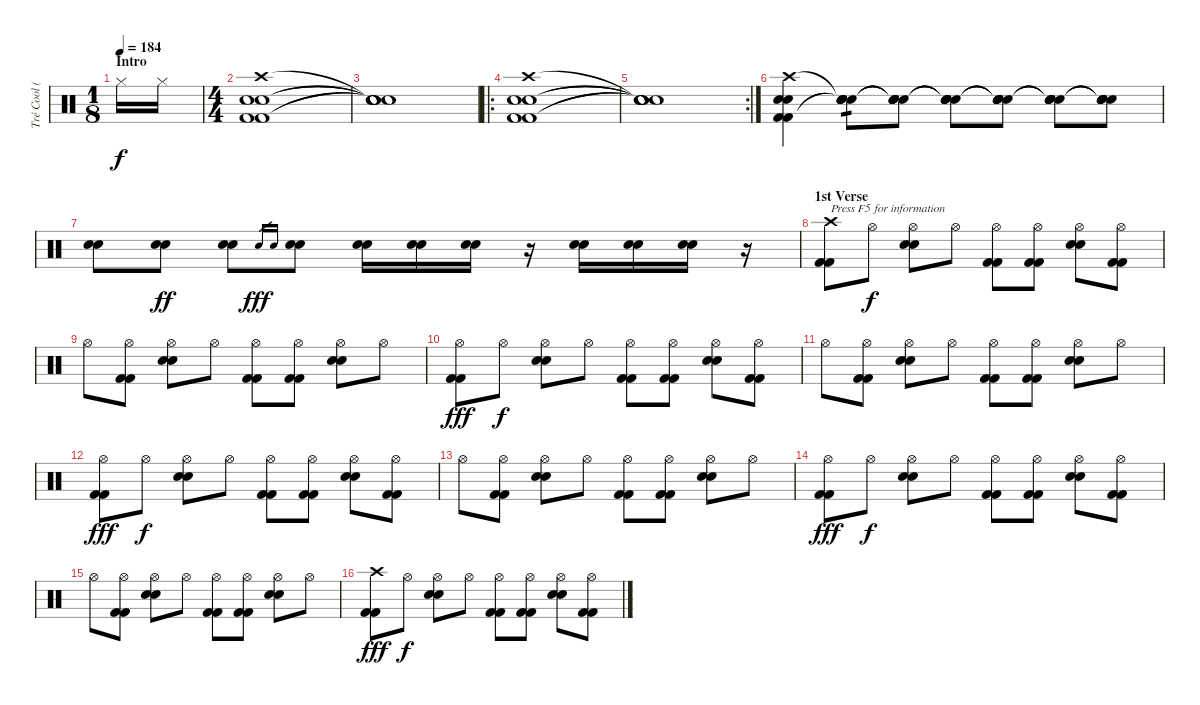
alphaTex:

\track ("Tré Cool (Drums)" "Tré Cool (") {instrument percussion}
\staff {score}
\articulation defaults
\ts (1 8)
\section ("" "Intro")
\tempo 184
\clef neutral
\ks c "Hi-Hat (closed)".16{dy f} "Hi-Hat (closed)".16
|
\ts (4 4)
("Kick (hit) 2" "Kick (hit) 2" "Electric Snare (hit)" "Electric Snare (hit)" "Crash high (hit)").1 |
("Snare (hit)"{t} "Snare (hit)"{t} "Snare (hit)"{t} "Snare (hit)"{t} "Snare (hit)"{t}).1 |
\ro
("Kick (hit) 2" "Kick (hit) 2" "Electric Snare (hit)" "Electric Snare (hit)" "Crash high (hit)").1 |
\rc 2
("Snare (hit)"{t} "Snare (hit)"{t} "Snare (hit)"{t} "Snare (hit)"{t} "Snare (hit)"{t}).1 |
("Electric Snare (hit)" "Electric Snare (hit)" "Kick (hit) 2" "Kick (hit) 2" "Crash high (hit)").4 ("Electric Snare (hit)" "Snare (hit) 2" "Snare (hit)"{t} "Snare (hit)"{t} "Snare (hit)"{t}).8{tp 1 volume 10} ("Electric Snare (hit)" "Snare (hit) 2" "Snare (hit)"{t} "Snare (hit)"{t} "Snare (hit)"{t}).8{volume 16} ("Electric Snare (hit)" "Snare (hit) 2" "Snare (hit)"{t} "Snare (hit)"{t} "Snare (hit)"{t}).8 ("Electric Snare (hit)" "Snare (hit) 2" "Snare (hit)"{t} "Snare (hit)"{t} "Snare (hit)"{t}).8 ("Electric Snare (hit)" "Snare (hit) 2" "Snare (hit)"{t} "Snare (hit)"{t} "Snare (hit)"{t}).8 ("Electric Snare (hit)" "Snare (hit) 2" "Snare (hit)"{t} "Snare (hit)"{t} "Snare (hit)"{t}).8 |
("Electric Snare (hit)" "Snare (hit) 2").8 ("Electric Snare (hit)" "Snare (hit) 2").8{dy ff} ("Electric Snare (hit)" "Snare (hit) 2").8 "Electric Snare (hit)".16{gr dy fff} "Snare (hit) 2"{h}.16{gr} ("Electric Snare (hit)" "Snare (hit) 2").8 ("Electric Snare (hit)" "Snare (hit) 2").16 ("Electric Snare (hit)" "Snare (hit) 2").16 ("Electric Snare (hit)" "Snare (hit) 2").16 r.16 ("Electric Snare (hit)" "Snare (hit) 2").16 ("Electric Snare (hit)" "Snare (hit) 2").16 ("Electric Snare (hit)" "Snare (hit) 2").16 r.16 |
\section ("" "1st Verse")
("Kick (hit) 2" "Kick (hit) 2" "Crash high (hit)").8{txt "Press F5 for information"} "Hi-Hat (open)".8{dy f} ("Electric Snare (hit)" "Electric Snare (hit)" "Hi-Hat (open)").8 "Hi-Hat (open)".8 ("Kick (hit) 2" "Kick (hit) 2" "Hi-Hat (open)").8 ("Kick (hit) 2" "Kick (hit) 2" "Hi-Hat (open)").8 ("Electric Snare (hit)" "Electric Snare (hit)" "Hi-Hat (open)").8 ("Kick (hit) 2" "Kick (hit) 2" "Hi-Hat (open)").8 |
"Hi-Hat (open)".8 ("Kick (hit) 2" "Kick (hit) 2" "Hi-Hat (open)").8 ("Electric Snare (hit)" "Electric Snare (hit)" "Hi-Hat (open)").8 "Hi-Hat (open)".8 ("Kick (hit) 2" "Kick (hit) 2" "Hi-Hat (open)").8 ("Kick (hit) 2" "Kick (hit) 2" "Hi-Hat (open)").8 ("Electric Snare (hit)" "Electric Snare (hit)" "Hi-Hat (open)").8 "Hi-Hat (open)".8 |
("Kick (hit) 2" "Kick (hit) 2" "Hi-Hat (open)").8{dy fff} "Hi-Hat (open)".8{dy f} ("Electric Snare (hit)" "Electric Snare (hit)" "Hi-Hat (open)").8 "Hi-Hat (open)".8 ("Kick (hit) 2" "Kick (hit) 2" "Hi-Hat (open)").8 ("Kick (hit) 2" "Kick (hit) 2" "Hi-Hat (open)").8 ("Electric Snare (hit)" "Electric Snare (hit)" "Hi-Hat (open)").8 ("Kick (hit) 2" "Kick (hit) 2" "Hi-Hat (open)").8 |
"Hi-Hat (open)".8 ("Kick (hit) 2" "Kick (hit) 2" "Hi-Hat (open)").8 ("Electric Snare (hit)" "Electric Snare (hit)" "Hi-Hat (open)").8 "Hi-Hat (open)".8 ("Kick (hit) 2" "Kick (hit) 2" "Hi-Hat (open)").8 ("Kick (hit) 2" "Kick (hit) 2" "Hi-Hat (open)").8 ("Electric Snare (hit)" "Electric Snare (hit)" "Hi-Hat (open)").8 "Hi-Hat (open)".8 |
("Kick (hit) 2" "Kick (hit) 2" "Hi-Hat (open)").8{dy fff} "Hi-Hat (open)".8{dy f} ("Electric Snare (hit)" "Electric Snare (hit)" "Hi-Hat (open)").8 "Hi-Hat (open)".8 ("Kick (hit) 2" "Kick (hit) 2" "Hi-Hat (open)").8 ("Kick (hit) 2" "Kick (hit) 2" "Hi-Hat (open)").8 ("Electric Snare (hit)" "Electric Snare (hit)" "Hi-Hat (open)").8 ("Kick (hit) 2" "Kick (hit) 2" "Hi-Hat (open)").8 |
"Hi-Hat (open)".8 ("Kick (hit) 2" "Kick (hit) 2" "Hi-Hat (open)").8 ("Electric Snare (hit)" "Electric Snare (hit)" "Hi-Hat (open)").8 "Hi-Hat (open)".8 ("Kick (hit) 2" "Kick (hit) 2" "Hi-Hat (open)").8 ("Kick (hit) 2" "Kick (hit) 2" "Hi-Hat (open)").8 ("Electric Snare (hit)" "Electric Snare (hit)" "Hi-Hat (open)").8 "Hi-Hat (open)".8 |
("Kick (hit) 2" "Kick (hit) 2" "Hi-Hat (open)").8{dy fff} "Hi-Hat (open)".8{dy f} ("Electric Snare (hit)" "Electric Snare (hit)" "Hi-Hat (open)").8 "Hi-Hat (open)".8 ("Kick (hit) 2" "Kick (hit) 2" "Hi-Hat (open)").8 ("Kick (hit) 2" "Kick (hit) 2" "Hi-Hat (open)").8 ("Electric Snare (hit)" "Electric Snare (hit)" "Hi-Hat (open)").8 ("Kick (hit) 2" "Kick (hit) 2" "Hi-Hat (open)").8 |
"Hi-Hat (open)".8 ("Kick (hit) 2" "Kick (hit) 2" "Hi-Hat (open)").8 ("Electric Snare (hit)" "Electric Snare (hit)" "Hi-Hat (open)").8 "Hi-Hat (open)".8 ("Kick (hit) 2" "Kick (hit) 2" "Hi-Hat (open)").8 ("Kick (hit) 2" "Kick (hit) 2" "Hi-Hat (open)").8 ("Electric Snare (hit)" "Electric Snare (hit)" "Hi-Hat (open)").8 "Hi-Hat (open)".8 |
("Kick (hit) 2" "Kick (hit) 2" "Crash high (hit)").8{dy fff} "Hi-Hat (open)".8{dy f} ("Electric Snare (hit)" "Electric Snare (hit)" "Hi-Hat (open)").8 "Hi-Hat (open)".8 ("Kick (hit) 2" "Kick (hit) 2" "Hi-Hat (open)").8 ("Kick (hit) 2" "Kick (hit) 2" "Hi-Hat (open)").8 ("Electric Snare (hit)" "Electric Snare (hit)" "Hi-Hat (open)").8 ("Kick (hit) 2" "Kick (hit) 2" "Hi-Hat (open)").8
